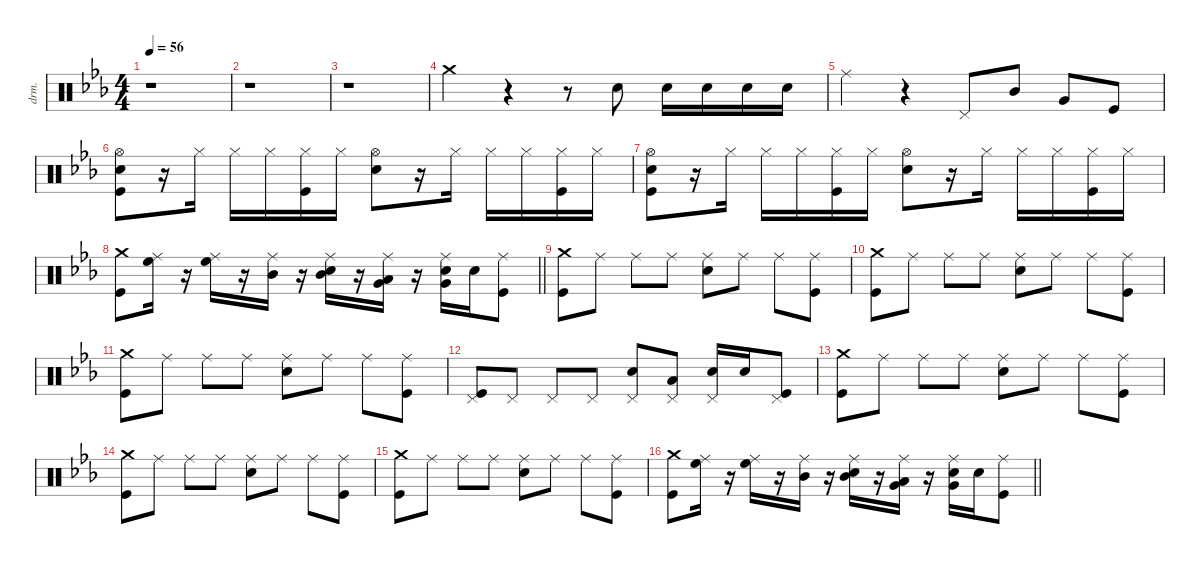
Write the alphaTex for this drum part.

\defaultSystemsLayout 4
\hideDynamics
\bracketExtendMode nobrackets
\otherSystemsTrackNameOrientation horizontal
\track ("Percussion" "drm.") {instrument percussion}
\staff {score}
\articulation defaults
\ts (4 4)
\beaming (8 2 2 2 2)
\tempo 56
\clef neutral
\ks cminor
r.1{dy f} |
r.1 |
r.1 |
"Crash medium (hit)"{acc forcenatural}.4 r.4 r.8 "Snare (hit) 2"{acc forcenatural}.8 "Snare (hit) 2"{acc forcenatural}.16 "Snare (hit) 2"{acc forcenatural}.16 "Snare (hit) 2"{acc forcenatural}.16 "Snare (hit) 2"{acc forcenatural}.16 |
"Ride (middle)"{acc forcenatural}.4 r.4 "Pedal Hi-Hat (hit)"{acc forcenatural}.8 "Mid Tom (hit)"{acc forcenatural}.8 "Very Low Tom (hit)"{acc forcenatural}.8 "Kick (hit)"{acc forcenatural}.8 |
("Hi-Hat (open)"{acc forcenatural} "Kick (hit)"{acc forcenatural} "Snare (hit) 2"{acc forcenatural}).8 r.16 "Hi-Hat (closed)"{acc forcenatural}.16 "Hi-Hat (closed)"{acc forcenatural}.16 "Hi-Hat (closed)"{acc forcenatural}.16 ("Kick (hit)"{acc forcenatural} "Hi-Hat (closed)"{acc forcenatural}).16 "Hi-Hat (closed)"{acc forcenatural}.16 ("Snare (hit) 2"{acc forcenatural} "Hi-Hat (open)"{acc forcenatural}).8 r.16 "Hi-Hat (closed)"{acc forcenatural}.16 "Hi-Hat (closed)"{acc forcenatural}.16 "Hi-Hat (closed)"{acc forcenatural}.16 ("Kick (hit)"{acc forcenatural} "Hi-Hat (closed)"{acc forcenatural}).16 "Hi-Hat (closed)"{acc forcenatural}.16 |
("Hi-Hat (open)"{acc forcenatural} "Kick (hit)"{acc forcenatural} "Snare (hit) 2"{acc forcenatural}).8 r.16 "Hi-Hat (closed)"{acc forcenatural}.16 "Hi-Hat (closed)"{acc forcenatural}.16 "Hi-Hat (closed)"{acc forcenatural}.16 ("Kick (hit)"{acc forcenatural} "Hi-Hat (closed)"{acc forcenatural}).16 "Hi-Hat (closed)"{acc forcenatural}.16 ("Snare (hit) 2"{acc forcenatural} "Hi-Hat (open)"{acc forcenatural}).8 r.16 "Hi-Hat (closed)"{acc forcenatural}.16 "Hi-Hat (closed)"{acc forcenatural}.16 "Hi-Hat (closed)"{acc forcenatural}.16 ("Kick (hit)"{acc forcenatural} "Hi-Hat (closed)"{acc forcenatural}).16 "Hi-Hat (closed)"{acc forcenatural}.16 |
\barLineRight lightlight
("Crash medium (hit)"{acc forcenatural} "Kick (hit)"{acc forcenatural}).8 ("High Floor Tom (hit)"{acc forcenatural} "Ride (middle)"{acc forcenatural}).16 r.16 ("High Floor Tom (hit)"{acc forcenatural} "Ride (middle)"{acc forcenatural}).16 r.16 ("Mid Tom (hit)"{acc forcenatural} "Ride (middle)"{acc forcenatural}).16 r.16 ("Mid Tom (hit)"{acc forcenatural} "Snare (hit) 2"{acc forcenatural} "Ride (middle)"{acc forcenatural}).16 r.16 ("Very Low Tom (hit)"{acc forcenatural} "Low Floor Tom (hit)"{acc forcenatural} "Ride (middle)"{acc forcenatural}).16 r.16 ("Very Low Tom (hit)"{acc forcenatural} "Snare (hit) 2"{acc forcenatural} "Ride (middle)"{acc forcenatural}).16 "Snare (hit) 2"{acc forcenatural}.16 ("Kick (hit)"{acc forcenatural} "Ride (middle)"{acc forcenatural}).8 |
("Crash medium (hit)"{acc forcenatural} "Kick (hit)"{acc forcenatural}).8 "Ride (middle)"{acc forcenatural}.8 "Ride (middle)"{acc forcenatural}.8 "Ride (middle)"{acc forcenatural}.8 ("Snare (hit) 2"{acc forcenatural} "Ride (middle)"{acc forcenatural}).8 "Ride (middle)"{acc forcenatural}.8 "Ride (middle)"{acc forcenatural}.8 ("Kick (hit)"{acc forcenatural} "Ride (middle)"{acc forcenatural}).8 |
("Crash medium (hit)"{acc forcenatural} "Kick (hit)"{acc forcenatural}).8 "Ride (middle)"{acc forcenatural}.8 "Ride (middle)"{acc forcenatural}.8 "Ride (middle)"{acc forcenatural}.8 ("Snare (hit) 2"{acc forcenatural} "Ride (middle)"{acc forcenatural}).8 "Ride (middle)"{acc forcenatural}.8 "Ride (middle)"{acc forcenatural}.8 ("Kick (hit)"{acc forcenatural} "Ride (middle)"{acc forcenatural}).8 |
("Crash medium (hit)"{acc forcenatural} "Kick (hit)"{acc forcenatural}).8 "Ride (middle)"{acc forcenatural}.8 "Ride (middle)"{acc forcenatural}.8 "Ride (middle)"{acc forcenatural}.8 ("Snare (hit) 2"{acc forcenatural} "Ride (middle)"{acc forcenatural}).8 "Ride (middle)"{acc forcenatural}.8 "Ride (middle)"{acc forcenatural}.8 ("Kick (hit)"{acc forcenatural} "Ride (middle)"{acc forcenatural}).8 |
("Pedal Hi-Hat (hit)"{acc forcenatural} "Kick (hit)"{acc forcenatural}).8 "Pedal Hi-Hat (hit)"{acc forcenatural}.8 "Pedal Hi-Hat (hit)"{acc forcenatural}.8 "Pedal Hi-Hat (hit)"{acc forcenatural}.8 ("Snare (hit) 2"{acc forcenatural} "Pedal Hi-Hat (hit)"{acc forcenatural}).8 ("Low Floor Tom (hit)"{acc forcenatural} "Pedal Hi-Hat (hit)"{acc forcenatural}).8 ("Snare (hit) 2"{acc forcenatural} "Pedal Hi-Hat (hit)"{acc forcenatural}).16 "Snare (hit) 2"{acc forcenatural}.16 ("Kick (hit)"{acc forcenatural} "Pedal Hi-Hat (hit)"{acc forcenatural}).8 |
("Crash medium (hit)"{acc forcenatural} "Kick (hit)"{acc forcenatural}).8 "Ride (middle)"{acc forcenatural}.8 "Ride (middle)"{acc forcenatural}.8 "Ride (middle)"{acc forcenatural}.8 ("Snare (hit) 2"{acc forcenatural} "Ride (middle)"{acc forcenatural}).8 "Ride (middle)"{acc forcenatural}.8 "Ride (middle)"{acc forcenatural}.8 ("Kick (hit)"{acc forcenatural} "Ride (middle)"{acc forcenatural}).8 |
("Crash medium (hit)"{acc forcenatural} "Kick (hit)"{acc forcenatural}).8 "Ride (middle)"{acc forcenatural}.8 "Ride (middle)"{acc forcenatural}.8 "Ride (middle)"{acc forcenatural}.8 ("Snare (hit) 2"{acc forcenatural} "Ride (middle)"{acc forcenatural}).8 "Ride (middle)"{acc forcenatural}.8 "Ride (middle)"{acc forcenatural}.8 ("Kick (hit)"{acc forcenatural} "Ride (middle)"{acc forcenatural}).8 |
("Crash medium (hit)"{acc forcenatural} "Kick (hit)"{acc forcenatural}).8 "Ride (middle)"{acc forcenatural}.8 "Ride (middle)"{acc forcenatural}.8 "Ride (middle)"{acc forcenatural}.8 ("Snare (hit) 2"{acc forcenatural} "Ride (middle)"{acc forcenatural}).8 "Ride (middle)"{acc forcenatural}.8 "Ride (middle)"{acc forcenatural}.8 ("Kick (hit)"{acc forcenatural} "Ride (middle)"{acc forcenatural}).8 |
\barLineRight lightlight
("Crash medium (hit)"{acc forcenatural} "Kick (hit)"{acc forcenatural}).8 ("High Floor Tom (hit)"{acc forcenatural} "Ride (middle)"{acc forcenatural}).16 r.16 ("High Floor Tom (hit)"{acc forcenatural} "Ride (middle)"{acc forcenatural}).16 r.16 ("Mid Tom (hit)"{acc forcenatural} "Ride (middle)"{acc forcenatural}).16 r.16 ("Mid Tom (hit)"{acc forcenatural} "Snare (hit) 2"{acc forcenatural} "Ride (middle)"{acc forcenatural}).16 r.16 ("Very Low Tom (hit)"{acc forcenatural} "Low Floor Tom (hit)"{acc forcenatural} "Ride (middle)"{acc forcenatural}).16 r.16 ("Very Low Tom (hit)"{acc forcenatural} "Snare (hit) 2"{acc forcenatural} "Ride (middle)"{acc forcenatural}).16 "Snare (hit) 2"{acc forcenatural}.16 ("Kick (hit)"{acc forcenatural} "Ride (middle)"{acc forcenatural}).8
